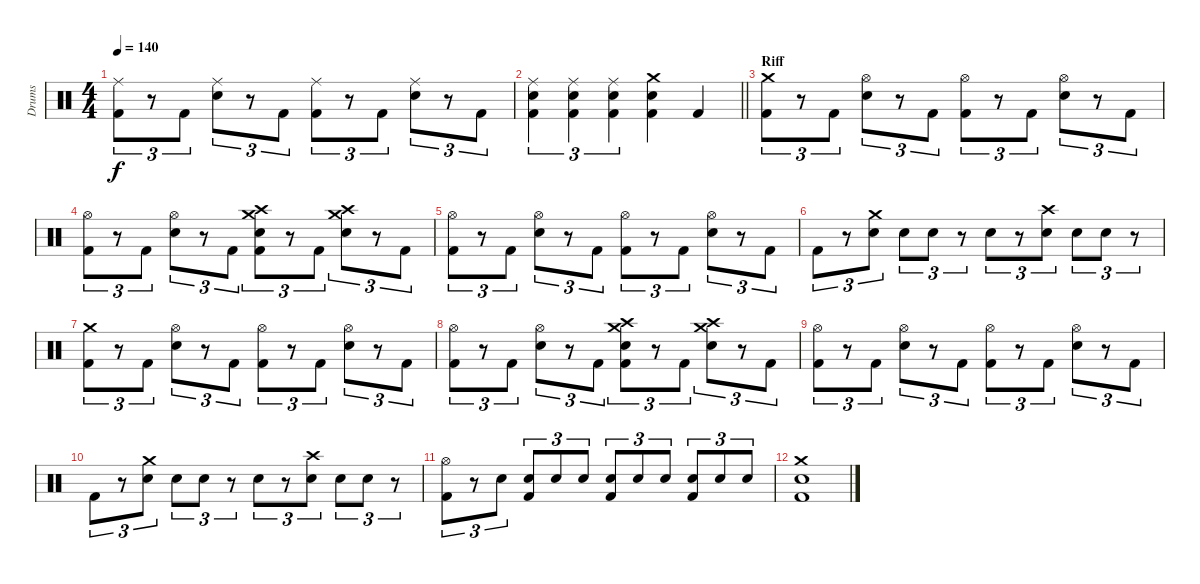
\track ("Drums" "Drums") {instrument percussion}
\staff {score}
\articulation defaults
\ts (4 4)
\tempo 140
\clef neutral
\ks c
("Ride (middle)" "Kick (hit) 2").8{tu (3 2) dy f} r.8{tu (3 2)} "Kick (hit) 2".8{tu (3 2)} ("Ride (middle)" "Snare (hit) 2").8{tu (3 2)} r.8{tu (3 2)} "Kick (hit) 2".8{tu (3 2)} ("Ride (middle)" "Kick (hit) 2").8{tu (3 2)} r.8{tu (3 2)} "Kick (hit) 2".8{tu (3 2)} ("Ride (middle)" "Snare (hit) 2").8{tu (3 2)} r.8{tu (3 2)} "Kick (hit) 2".8{tu (3 2)} |
\barLineRight lightlight
("Ride (middle)" "Snare (hit) 2" "Kick (hit) 2").4{tu (3 2)} ("Ride (middle)" "Snare (hit) 2" "Kick (hit) 2").4{tu (3 2)} ("Ride (middle)" "Snare (hit) 2" "Kick (hit) 2").4{tu (3 2)} ("Crash medium (hit)" "Snare (hit) 2" "Kick (hit) 2").4 "Kick (hit) 2".4 |
\section ("" "Riff")
("Crash medium (hit)" "Kick (hit) 2").8{tu (3 2)} r.8{tu (3 2)} "Kick (hit) 2".8{tu (3 2)} ("Hi-Hat (open)" "Snare (hit) 2").8{tu (3 2)} r.8{tu (3 2)} "Kick (hit) 2".8{tu (3 2)} ("Hi-Hat (open)" "Kick (hit) 2").8{tu (3 2)} r.8{tu (3 2)} "Kick (hit) 2".8{tu (3 2)} ("Hi-Hat (open)" "Snare (hit) 2").8{tu (3 2)} r.8{tu (3 2)} "Kick (hit) 2".8{tu (3 2)} |
("Hi-Hat (open)" "Kick (hit) 2").8{tu (3 2)} r.8{tu (3 2)} "Kick (hit) 2".8{tu (3 2)} ("Hi-Hat (open)" "Snare (hit) 2").8{tu (3 2)} r.8{tu (3 2)} "Kick (hit) 2".8{tu (3 2)} ("Crash medium (hit)" "Crash high (hit)" "Snare (hit) 2" "Kick (hit) 2").8{tu (3 2)} r.8{tu (3 2)} "Kick (hit) 2".8{tu (3 2)} ("Crash medium (hit)" "Crash high (hit)" "Snare (hit) 2").8{tu (3 2)} r.8{tu (3 2)} "Kick (hit) 2".8{tu (3 2)} |
("Hi-Hat (open)" "Kick (hit) 2").8{tu (3 2)} r.8{tu (3 2)} "Kick (hit) 2".8{tu (3 2)} ("Hi-Hat (open)" "Snare (hit) 2").8{tu (3 2)} r.8{tu (3 2)} "Kick (hit) 2".8{tu (3 2)} ("Hi-Hat (open)" "Kick (hit) 2").8{tu (3 2)} r.8{tu (3 2)} "Kick (hit) 2".8{tu (3 2)} ("Hi-Hat (open)" "Snare (hit) 2").8{tu (3 2)} r.8{tu (3 2)} "Kick (hit) 2".8{tu (3 2)} |
"Kick (hit) 2".8{tu (3 2)} r.8{tu (3 2)} ("Crash medium (hit)" "Snare (hit) 2").8{tu (3 2)} "Snare (hit) 2".8{tu (3 2)} "Snare (hit) 2".8{tu (3 2)} r.8{tu (3 2)} "Snare (hit) 2".8{tu (3 2)} r.8{tu (3 2)} ("Crash high (hit)" "Snare (hit) 2").8{tu (3 2)} "Snare (hit) 2".8{tu (3 2)} "Snare (hit) 2".8{tu (3 2)} r.8{tu (3 2)} |
("Crash medium (hit)" "Kick (hit) 2").8{tu (3 2)} r.8{tu (3 2)} "Kick (hit) 2".8{tu (3 2)} ("Hi-Hat (open)" "Snare (hit) 2").8{tu (3 2)} r.8{tu (3 2)} "Kick (hit) 2".8{tu (3 2)} ("Hi-Hat (open)" "Kick (hit) 2").8{tu (3 2)} r.8{tu (3 2)} "Kick (hit) 2".8{tu (3 2)} ("Hi-Hat (open)" "Snare (hit) 2").8{tu (3 2)} r.8{tu (3 2)} "Kick (hit) 2".8{tu (3 2)} |
("Hi-Hat (open)" "Kick (hit) 2").8{tu (3 2)} r.8{tu (3 2)} "Kick (hit) 2".8{tu (3 2)} ("Hi-Hat (open)" "Snare (hit) 2").8{tu (3 2)} r.8{tu (3 2)} "Kick (hit) 2".8{tu (3 2)} ("Crash medium (hit)" "Crash high (hit)" "Snare (hit) 2" "Kick (hit) 2").8{tu (3 2)} r.8{tu (3 2)} "Kick (hit) 2".8{tu (3 2)} ("Crash medium (hit)" "Crash high (hit)" "Snare (hit) 2").8{tu (3 2)} r.8{tu (3 2)} "Kick (hit) 2".8{tu (3 2)} |
("Hi-Hat (open)" "Kick (hit) 2").8{tu (3 2)} r.8{tu (3 2)} "Kick (hit) 2".8{tu (3 2)} ("Hi-Hat (open)" "Snare (hit) 2").8{tu (3 2)} r.8{tu (3 2)} "Kick (hit) 2".8{tu (3 2)} ("Hi-Hat (open)" "Kick (hit) 2").8{tu (3 2)} r.8{tu (3 2)} "Kick (hit) 2".8{tu (3 2)} ("Hi-Hat (open)" "Snare (hit) 2").8{tu (3 2)} r.8{tu (3 2)} "Kick (hit) 2".8{tu (3 2)} |
"Kick (hit) 2".8{tu (3 2)} r.8{tu (3 2)} ("Crash medium (hit)" "Snare (hit) 2").8{tu (3 2)} "Snare (hit) 2".8{tu (3 2)} "Snare (hit) 2".8{tu (3 2)} r.8{tu (3 2)} "Snare (hit) 2".8{tu (3 2)} r.8{tu (3 2)} ("Crash high (hit)" "Snare (hit) 2").8{tu (3 2)} "Snare (hit) 2".8{tu (3 2)} "Snare (hit) 2".8{tu (3 2)} r.8{tu (3 2)} |
("Hi-Hat (open)" "Kick (hit) 2").8{tu (3 2)} r.8{tu (3 2)} "Snare (hit) 2".8{tu (3 2)} ("Snare (hit) 2" "Kick (hit) 2").8{tu (3 2)} "Snare (hit) 2".8{tu (3 2)} "Snare (hit) 2".8{tu (3 2)} ("Snare (hit) 2" "Kick (hit) 2").8{tu (3 2)} "Snare (hit) 2".8{tu (3 2)} "Snare (hit) 2".8{tu (3 2)} ("Snare (hit) 2" "Kick (hit) 2").8{tu (3 2)} "Snare (hit) 2".8{tu (3 2)} "Snare (hit) 2".8{tu (3 2)} |
("Crash medium (hit)" "Snare (hit) 2" "Kick (hit) 2").1
